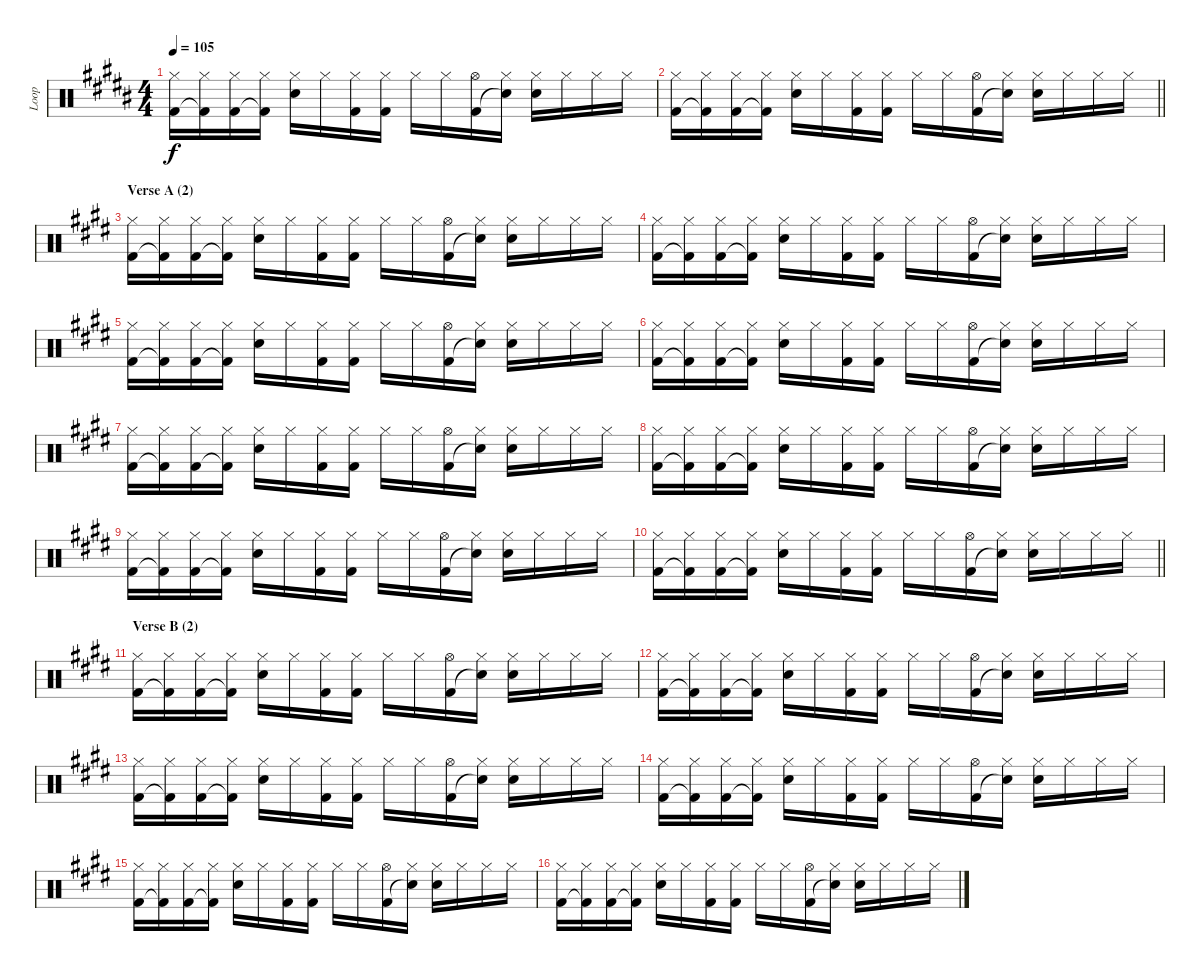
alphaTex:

\track ("Loop" "Loop") {instrument percussion}
\staff {score}
\articulation defaults
\ts (4 4)
\tempo 105
\clef neutral
\ks g#minor
("Hi-Hat (closed)" "Kick (hit) 2").16{dy f} ("Hi-Hat (closed)" "Kick (hit) 2"{t}).16 ("Hi-Hat (closed)" "Kick (hit) 2").16 ("Hi-Hat (closed)" "Kick (hit) 2"{t}).16 ("Hi-Hat (closed)" "Electric Snare (hit)").16 "Hi-Hat (closed)".16 ("Hi-Hat (closed)" "Kick (hit) 2").16 ("Hi-Hat (closed)" "Kick (hit) 2").16 "Hi-Hat (closed)".16 "Hi-Hat (closed)".16 ("Hi-Hat (open)" "Kick (hit) 2").16 ("Hi-Hat (closed)" "Snare (hit)"{t}).16 ("Hi-Hat (closed)" "Electric Snare (hit)").16 "Hi-Hat (closed)".16 "Hi-Hat (closed)".16 "Hi-Hat (closed)".16 |
\barLineRight lightlight
("Hi-Hat (closed)" "Kick (hit) 2").16 ("Hi-Hat (closed)" "Kick (hit) 2"{t}).16 ("Hi-Hat (closed)" "Kick (hit) 2").16 ("Hi-Hat (closed)" "Kick (hit) 2"{t}).16 ("Hi-Hat (closed)" "Electric Snare (hit)").16 "Hi-Hat (closed)".16 ("Hi-Hat (closed)" "Kick (hit) 2").16 ("Hi-Hat (closed)" "Kick (hit) 2").16 "Hi-Hat (closed)".16 "Hi-Hat (closed)".16 ("Hi-Hat (open)" "Kick (hit) 2").16 ("Hi-Hat (closed)" "Snare (hit)"{t}).16 ("Hi-Hat (closed)" "Electric Snare (hit)").16 "Hi-Hat (closed)".16 "Hi-Hat (closed)".16 "Hi-Hat (closed)".16 |
\section ("" "Verse A (2)")
\ks e
("Hi-Hat (closed)" "Kick (hit) 2").16 ("Hi-Hat (closed)" "Kick (hit) 2"{t}).16 ("Hi-Hat (closed)" "Kick (hit) 2").16 ("Hi-Hat (closed)" "Kick (hit) 2"{t}).16 ("Hi-Hat (closed)" "Electric Snare (hit)").16 "Hi-Hat (closed)".16 ("Hi-Hat (closed)" "Kick (hit) 2").16 ("Hi-Hat (closed)" "Kick (hit) 2").16 "Hi-Hat (closed)".16 "Hi-Hat (closed)".16 ("Hi-Hat (open)" "Kick (hit) 2").16 ("Hi-Hat (closed)" "Snare (hit)"{t}).16 ("Hi-Hat (closed)" "Electric Snare (hit)").16 "Hi-Hat (closed)".16 "Hi-Hat (closed)".16 "Hi-Hat (closed)".16 |
("Hi-Hat (closed)" "Kick (hit) 2").16 ("Hi-Hat (closed)" "Kick (hit) 2"{t}).16 ("Hi-Hat (closed)" "Kick (hit) 2").16 ("Hi-Hat (closed)" "Kick (hit) 2"{t}).16 ("Hi-Hat (closed)" "Electric Snare (hit)").16 "Hi-Hat (closed)".16 ("Hi-Hat (closed)" "Kick (hit) 2").16 ("Hi-Hat (closed)" "Kick (hit) 2").16 "Hi-Hat (closed)".16 "Hi-Hat (closed)".16 ("Hi-Hat (open)" "Kick (hit) 2").16 ("Hi-Hat (closed)" "Snare (hit)"{t}).16 ("Hi-Hat (closed)" "Electric Snare (hit)").16 "Hi-Hat (closed)".16 "Hi-Hat (closed)".16 "Hi-Hat (closed)".16 |
("Hi-Hat (closed)" "Kick (hit) 2").16 ("Hi-Hat (closed)" "Kick (hit) 2"{t}).16 ("Hi-Hat (closed)" "Kick (hit) 2").16 ("Hi-Hat (closed)" "Kick (hit) 2"{t}).16 ("Hi-Hat (closed)" "Electric Snare (hit)").16 "Hi-Hat (closed)".16 ("Hi-Hat (closed)" "Kick (hit) 2").16 ("Hi-Hat (closed)" "Kick (hit) 2").16 "Hi-Hat (closed)".16 "Hi-Hat (closed)".16 ("Hi-Hat (open)" "Kick (hit) 2").16 ("Hi-Hat (closed)" "Snare (hit)"{t}).16 ("Hi-Hat (closed)" "Electric Snare (hit)").16 "Hi-Hat (closed)".16 "Hi-Hat (closed)".16 "Hi-Hat (closed)".16 |
("Hi-Hat (closed)" "Kick (hit) 2").16 ("Hi-Hat (closed)" "Kick (hit) 2"{t}).16 ("Hi-Hat (closed)" "Kick (hit) 2").16 ("Hi-Hat (closed)" "Kick (hit) 2"{t}).16 ("Hi-Hat (closed)" "Electric Snare (hit)").16 "Hi-Hat (closed)".16 ("Hi-Hat (closed)" "Kick (hit) 2").16 ("Hi-Hat (closed)" "Kick (hit) 2").16 "Hi-Hat (closed)".16 "Hi-Hat (closed)".16 ("Hi-Hat (open)" "Kick (hit) 2").16 ("Hi-Hat (closed)" "Snare (hit)"{t}).16 ("Hi-Hat (closed)" "Electric Snare (hit)").16 "Hi-Hat (closed)".16 "Hi-Hat (closed)".16 "Hi-Hat (closed)".16 |
("Hi-Hat (closed)" "Kick (hit) 2").16 ("Hi-Hat (closed)" "Kick (hit) 2"{t}).16 ("Hi-Hat (closed)" "Kick (hit) 2").16 ("Hi-Hat (closed)" "Kick (hit) 2"{t}).16 ("Hi-Hat (closed)" "Electric Snare (hit)").16 "Hi-Hat (closed)".16 ("Hi-Hat (closed)" "Kick (hit) 2").16 ("Hi-Hat (closed)" "Kick (hit) 2").16 "Hi-Hat (closed)".16 "Hi-Hat (closed)".16 ("Hi-Hat (open)" "Kick (hit) 2").16 ("Hi-Hat (closed)" "Snare (hit)"{t}).16 ("Hi-Hat (closed)" "Electric Snare (hit)").16 "Hi-Hat (closed)".16 "Hi-Hat (closed)".16 "Hi-Hat (closed)".16 |
("Hi-Hat (closed)" "Kick (hit) 2").16 ("Hi-Hat (closed)" "Kick (hit) 2"{t}).16 ("Hi-Hat (closed)" "Kick (hit) 2").16 ("Hi-Hat (closed)" "Kick (hit) 2"{t}).16 ("Hi-Hat (closed)" "Electric Snare (hit)").16 "Hi-Hat (closed)".16 ("Hi-Hat (closed)" "Kick (hit) 2").16 ("Hi-Hat (closed)" "Kick (hit) 2").16 "Hi-Hat (closed)".16 "Hi-Hat (closed)".16 ("Hi-Hat (open)" "Kick (hit) 2").16 ("Hi-Hat (closed)" "Snare (hit)"{t}).16 ("Hi-Hat (closed)" "Electric Snare (hit)").16 "Hi-Hat (closed)".16 "Hi-Hat (closed)".16 "Hi-Hat (closed)".16 |
("Hi-Hat (closed)" "Kick (hit) 2").16 ("Hi-Hat (closed)" "Kick (hit) 2"{t}).16 ("Hi-Hat (closed)" "Kick (hit) 2").16 ("Hi-Hat (closed)" "Kick (hit) 2"{t}).16 ("Hi-Hat (closed)" "Electric Snare (hit)").16 "Hi-Hat (closed)".16 ("Hi-Hat (closed)" "Kick (hit) 2").16 ("Hi-Hat (closed)" "Kick (hit) 2").16 "Hi-Hat (closed)".16 "Hi-Hat (closed)".16 ("Hi-Hat (open)" "Kick (hit) 2").16 ("Hi-Hat (closed)" "Snare (hit)"{t}).16 ("Hi-Hat (closed)" "Electric Snare (hit)").16 "Hi-Hat (closed)".16 "Hi-Hat (closed)".16 "Hi-Hat (closed)".16 |
\barLineRight lightlight
("Hi-Hat (closed)" "Kick (hit) 2").16 ("Hi-Hat (closed)" "Kick (hit) 2"{t}).16 ("Hi-Hat (closed)" "Kick (hit) 2").16 ("Hi-Hat (closed)" "Kick (hit) 2"{t}).16 ("Hi-Hat (closed)" "Electric Snare (hit)").16 "Hi-Hat (closed)".16 ("Hi-Hat (closed)" "Kick (hit) 2").16 ("Hi-Hat (closed)" "Kick (hit) 2").16 "Hi-Hat (closed)".16 "Hi-Hat (closed)".16 ("Hi-Hat (open)" "Kick (hit) 2").16 ("Hi-Hat (closed)" "Snare (hit)"{t}).16 ("Hi-Hat (closed)" "Electric Snare (hit)").16 "Hi-Hat (closed)".16 "Hi-Hat (closed)".16 "Hi-Hat (closed)".16 |
\section ("" "Verse B (2)")
("Hi-Hat (closed)" "Kick (hit) 2").16 ("Hi-Hat (closed)" "Kick (hit) 2"{t}).16 ("Hi-Hat (closed)" "Kick (hit) 2").16 ("Hi-Hat (closed)" "Kick (hit) 2"{t}).16 ("Hi-Hat (closed)" "Electric Snare (hit)").16 "Hi-Hat (closed)".16 ("Hi-Hat (closed)" "Kick (hit) 2").16 ("Hi-Hat (closed)" "Kick (hit) 2").16 "Hi-Hat (closed)".16 "Hi-Hat (closed)".16 ("Hi-Hat (open)" "Kick (hit) 2").16 ("Hi-Hat (closed)" "Snare (hit)"{t}).16 ("Hi-Hat (closed)" "Electric Snare (hit)").16 "Hi-Hat (closed)".16 "Hi-Hat (closed)".16 "Hi-Hat (closed)".16 |
("Hi-Hat (closed)" "Kick (hit) 2").16 ("Hi-Hat (closed)" "Kick (hit) 2"{t}).16 ("Hi-Hat (closed)" "Kick (hit) 2").16 ("Hi-Hat (closed)" "Kick (hit) 2"{t}).16 ("Hi-Hat (closed)" "Electric Snare (hit)").16 "Hi-Hat (closed)".16 ("Hi-Hat (closed)" "Kick (hit) 2").16 ("Hi-Hat (closed)" "Kick (hit) 2").16 "Hi-Hat (closed)".16 "Hi-Hat (closed)".16 ("Hi-Hat (open)" "Kick (hit) 2").16 ("Hi-Hat (closed)" "Snare (hit)"{t}).16 ("Hi-Hat (closed)" "Electric Snare (hit)").16 "Hi-Hat (closed)".16 "Hi-Hat (closed)".16 "Hi-Hat (closed)".16 |
("Hi-Hat (closed)" "Kick (hit) 2").16 ("Hi-Hat (closed)" "Kick (hit) 2"{t}).16 ("Hi-Hat (closed)" "Kick (hit) 2").16 ("Hi-Hat (closed)" "Kick (hit) 2"{t}).16 ("Hi-Hat (closed)" "Electric Snare (hit)").16 "Hi-Hat (closed)".16 ("Hi-Hat (closed)" "Kick (hit) 2").16 ("Hi-Hat (closed)" "Kick (hit) 2").16 "Hi-Hat (closed)".16 "Hi-Hat (closed)".16 ("Hi-Hat (open)" "Kick (hit) 2").16 ("Hi-Hat (closed)" "Snare (hit)"{t}).16 ("Hi-Hat (closed)" "Electric Snare (hit)").16 "Hi-Hat (closed)".16 "Hi-Hat (closed)".16 "Hi-Hat (closed)".16 |
("Hi-Hat (closed)" "Kick (hit) 2").16 ("Hi-Hat (closed)" "Kick (hit) 2"{t}).16 ("Hi-Hat (closed)" "Kick (hit) 2").16 ("Hi-Hat (closed)" "Kick (hit) 2"{t}).16 ("Hi-Hat (closed)" "Electric Snare (hit)").16 "Hi-Hat (closed)".16 ("Hi-Hat (closed)" "Kick (hit) 2").16 ("Hi-Hat (closed)" "Kick (hit) 2").16 "Hi-Hat (closed)".16 "Hi-Hat (closed)".16 ("Hi-Hat (open)" "Kick (hit) 2").16 ("Hi-Hat (closed)" "Snare (hit)"{t}).16 ("Hi-Hat (closed)" "Electric Snare (hit)").16 "Hi-Hat (closed)".16 "Hi-Hat (closed)".16 "Hi-Hat (closed)".16 |
("Hi-Hat (closed)" "Kick (hit) 2").16 ("Hi-Hat (closed)" "Kick (hit) 2"{t}).16 ("Hi-Hat (closed)" "Kick (hit) 2").16 ("Hi-Hat (closed)" "Kick (hit) 2"{t}).16 ("Hi-Hat (closed)" "Electric Snare (hit)").16 "Hi-Hat (closed)".16 ("Hi-Hat (closed)" "Kick (hit) 2").16 ("Hi-Hat (closed)" "Kick (hit) 2").16 "Hi-Hat (closed)".16 "Hi-Hat (closed)".16 ("Hi-Hat (open)" "Kick (hit) 2").16 ("Hi-Hat (closed)" "Snare (hit)"{t}).16 ("Hi-Hat (closed)" "Electric Snare (hit)").16 "Hi-Hat (closed)".16 "Hi-Hat (closed)".16 "Hi-Hat (closed)".16 |
("Hi-Hat (closed)" "Kick (hit) 2").16 ("Hi-Hat (closed)" "Kick (hit) 2"{t}).16 ("Hi-Hat (closed)" "Kick (hit) 2").16 ("Hi-Hat (closed)" "Kick (hit) 2"{t}).16 ("Hi-Hat (closed)" "Electric Snare (hit)").16 "Hi-Hat (closed)".16 ("Hi-Hat (closed)" "Kick (hit) 2").16 ("Hi-Hat (closed)" "Kick (hit) 2").16 "Hi-Hat (closed)".16 "Hi-Hat (closed)".16 ("Hi-Hat (open)" "Kick (hit) 2").16 ("Hi-Hat (closed)" "Snare (hit)"{t}).16 ("Hi-Hat (closed)" "Electric Snare (hit)").16 "Hi-Hat (closed)".16 "Hi-Hat (closed)".16 "Hi-Hat (closed)".16
